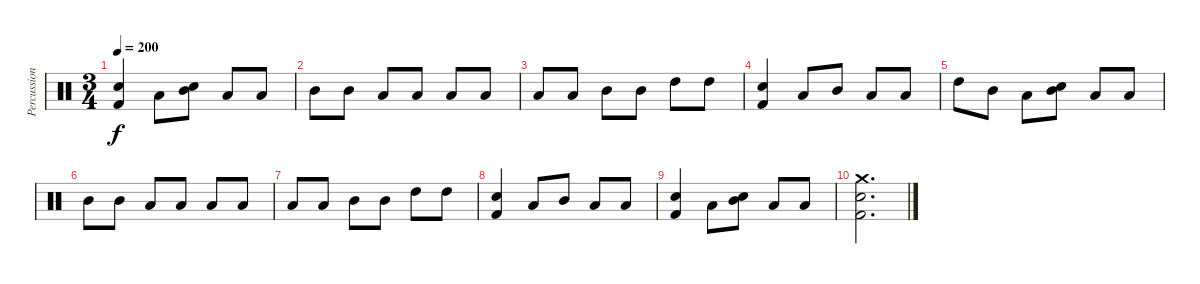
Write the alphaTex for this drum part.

\track ("Percussions" "Percussion") {instrument percussion}
\staff {score}
\articulation defaults
\ts (3 4)
\tempo 200
\clef neutral
\ks c
("Electric Snare (hit)" "Kick (hit) 2").4{dy f} "Low Tom (hit)".8 ("Mid Tom (hit)" "Electric Snare (hit)").8 "Low Tom (hit)".8 "Low Floor Tom (hit)".8 |
"Mid Tom (hit)".8 "Mid Tom (hit)".8 "Low Tom (hit)".8 "Low Tom (hit)".8 "Low Floor Tom (hit)".8 "Low Floor Tom (hit)".8 |
"Low Tom (hit)".8 "Low Tom (hit)".8 "Mid Tom (hit)".8 "Mid Tom (hit)".8 "High Tom (hit)".8 "High Tom (hit)".8 |
("Electric Snare (hit)" "Kick (hit) 2").4 "Low Tom (hit)".8 "Mid Tom (hit)".8 "Low Tom (hit)".8 "Low Floor Tom (hit)".8 |
"High Tom (hit)".8 "Mid Tom (hit)".8 "Low Tom (hit)".8 ("Mid Tom (hit)" "Electric Snare (hit)").8 "Low Tom (hit)".8 "Low Floor Tom (hit)".8 |
"Mid Tom (hit)".8 "Mid Tom (hit)".8 "Low Tom (hit)".8 "Low Tom (hit)".8 "Low Floor Tom (hit)".8 "Low Floor Tom (hit)".8 |
"Low Tom (hit)".8 "Low Tom (hit)".8 "Mid Tom (hit)".8 "Mid Tom (hit)".8 "High Tom (hit)".8 "High Tom (hit)".8 |
("Electric Snare (hit)" "Kick (hit) 2").4 "Low Tom (hit)".8 "Mid Tom (hit)".8 "Low Tom (hit)".8 "Low Floor Tom (hit)".8 |
("Electric Snare (hit)" "Kick (hit) 2").4 "Low Tom (hit)".8 ("Mid Tom (hit)" "Electric Snare (hit)").8 "Low Tom (hit)".8 "Low Floor Tom (hit)".8 |
("Crash medium (hit)" "Electric Snare (hit)" "Kick (hit) 2").2{d}
